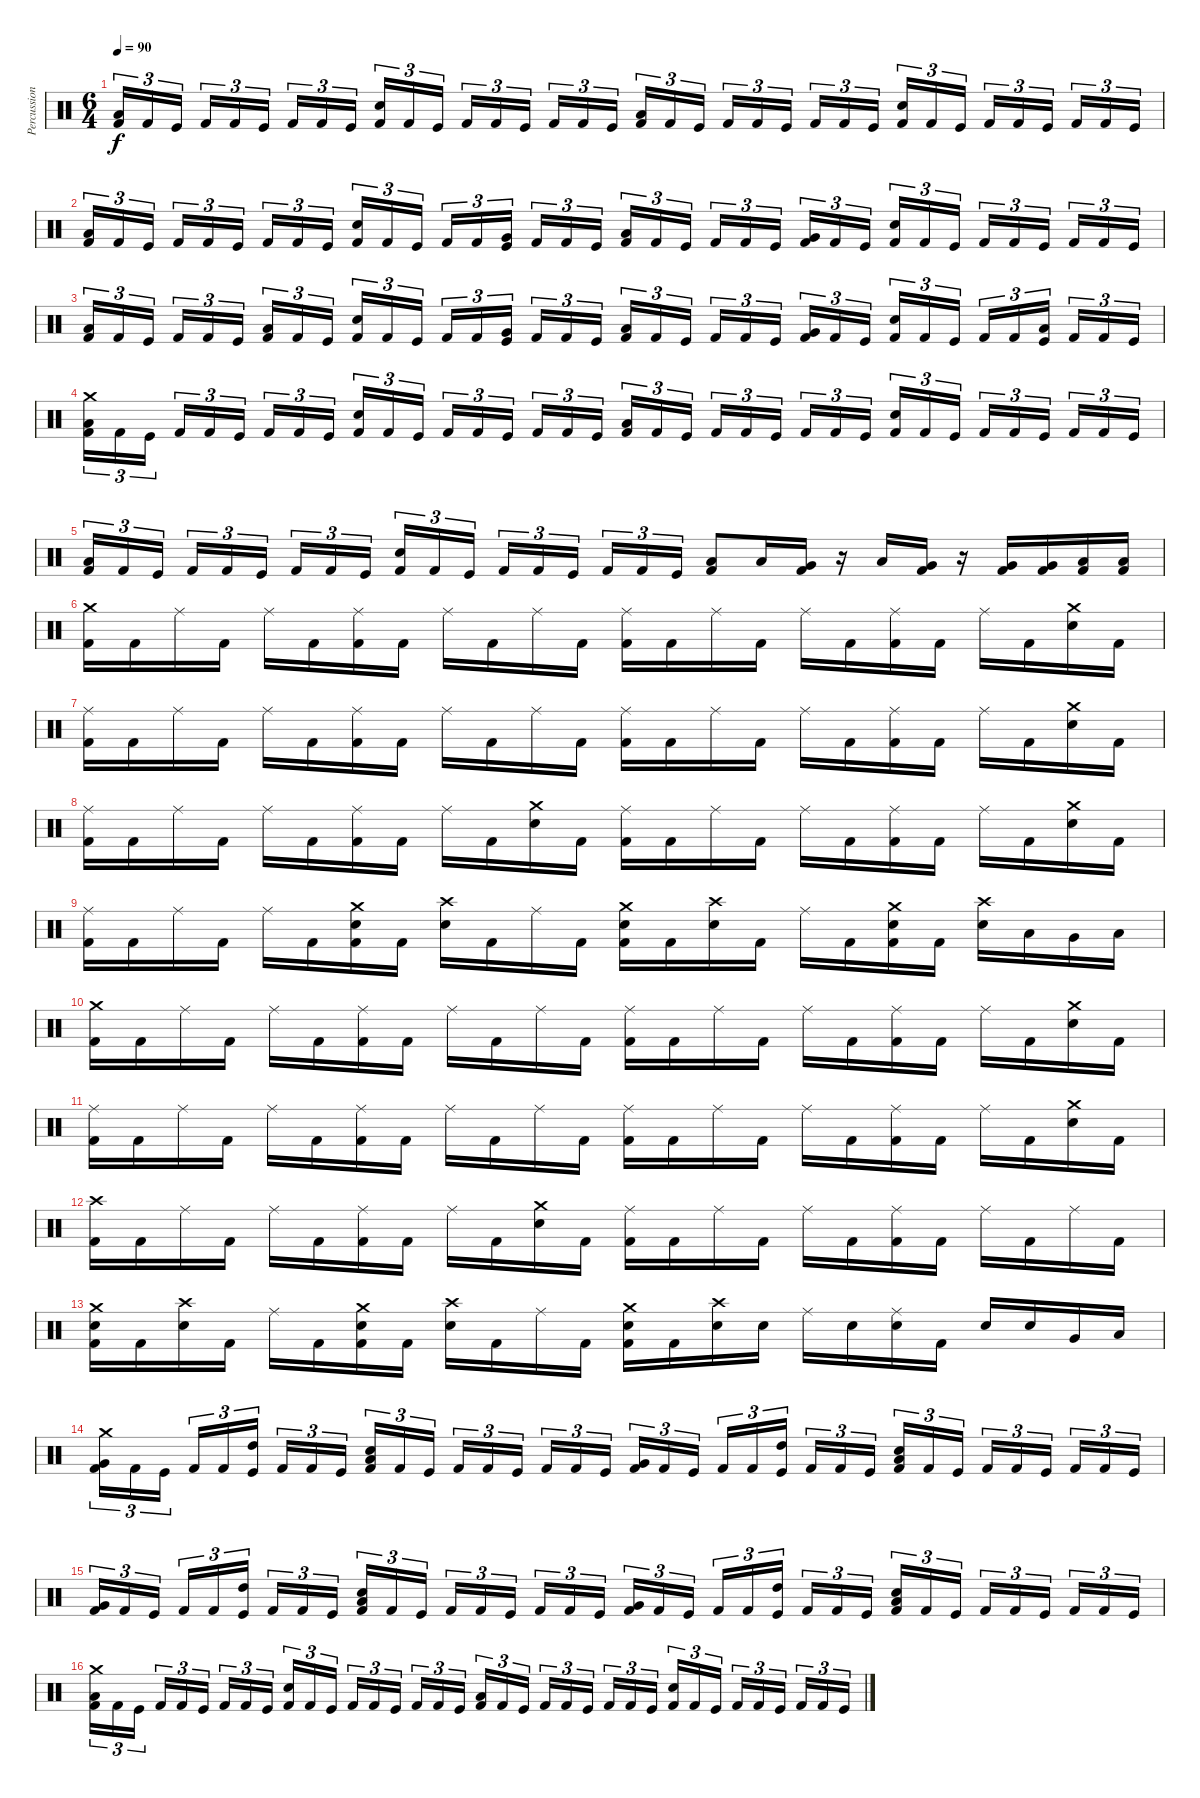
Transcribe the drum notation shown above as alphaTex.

\track ("Percussion" "Percussion") {instrument percussion}
\staff {score}
\articulation defaults
\ts (6 4)
\tempo 90
\clef neutral
\ks c
("Low Floor Tom (hit)" "Kick (hit) 2").16{tu (3 2) dy f} "Kick (hit) 2".16{tu (3 2)} "Kick (hit)".16{tu (3 2)} "Kick (hit) 2".16{tu (3 2)} "Kick (hit) 2".16{tu (3 2)} "Kick (hit)".16{tu (3 2)} "Kick (hit) 2".16{tu (3 2)} "Kick (hit) 2".16{tu (3 2)} "Kick (hit)".16{tu (3 2)} ("Electric Snare (hit)" "Kick (hit) 2").16{tu (3 2)} "Kick (hit) 2".16{tu (3 2)} "Kick (hit)".16{tu (3 2)} "Kick (hit) 2".16{tu (3 2)} "Kick (hit) 2".16{tu (3 2)} "Kick (hit)".16{tu (3 2)} "Kick (hit) 2".16{tu (3 2)} "Kick (hit) 2".16{tu (3 2)} "Kick (hit)".16{tu (3 2)} ("Low Floor Tom (hit)" "Kick (hit) 2").16{tu (3 2)} "Kick (hit) 2".16{tu (3 2)} "Kick (hit)".16{tu (3 2)} "Kick (hit) 2".16{tu (3 2)} "Kick (hit) 2".16{tu (3 2)} "Kick (hit)".16{tu (3 2)} "Kick (hit) 2".16{tu (3 2)} "Kick (hit) 2".16{tu (3 2)} "Kick (hit)".16{tu (3 2)} ("Electric Snare (hit)" "Kick (hit) 2").16{tu (3 2)} "Kick (hit) 2".16{tu (3 2)} "Kick (hit)".16{tu (3 2)} "Kick (hit) 2".16{tu (3 2)} "Kick (hit) 2".16{tu (3 2)} "Kick (hit)".16{tu (3 2)} "Kick (hit) 2".16{tu (3 2)} "Kick (hit) 2".16{tu (3 2)} "Kick (hit)".16{tu (3 2)} |
("Low Floor Tom (hit)" "Kick (hit) 2").16{tu (3 2)} "Kick (hit) 2".16{tu (3 2)} "Kick (hit)".16{tu (3 2)} "Kick (hit) 2".16{tu (3 2)} "Kick (hit) 2".16{tu (3 2)} "Kick (hit)".16{tu (3 2)} "Kick (hit) 2".16{tu (3 2)} "Kick (hit) 2".16{tu (3 2)} "Kick (hit)".16{tu (3 2)} ("Electric Snare (hit)" "Kick (hit) 2").16{tu (3 2)} "Kick (hit) 2".16{tu (3 2)} "Kick (hit)".16{tu (3 2)} "Kick (hit) 2".16{tu (3 2)} "Kick (hit) 2".16{tu (3 2)} ("Very Low Tom (hit)" "Kick (hit)").16{tu (3 2)} "Kick (hit) 2".16{tu (3 2)} "Kick (hit) 2".16{tu (3 2)} "Kick (hit)".16{tu (3 2)} ("Low Floor Tom (hit)" "Kick (hit) 2").16{tu (3 2)} "Kick (hit) 2".16{tu (3 2)} "Kick (hit)".16{tu (3 2)} "Kick (hit) 2".16{tu (3 2)} "Kick (hit) 2".16{tu (3 2)} "Kick (hit)".16{tu (3 2)} ("Very Low Tom (hit)" "Kick (hit) 2").16{tu (3 2)} "Kick (hit) 2".16{tu (3 2)} "Kick (hit)".16{tu (3 2)} ("Electric Snare (hit)" "Kick (hit) 2").16{tu (3 2)} "Kick (hit) 2".16{tu (3 2)} "Kick (hit)".16{tu (3 2)} "Kick (hit) 2".16{tu (3 2)} "Kick (hit) 2".16{tu (3 2)} "Kick (hit)".16{tu (3 2)} "Kick (hit) 2".16{tu (3 2)} "Kick (hit) 2".16{tu (3 2)} "Kick (hit)".16{tu (3 2)} |
("Low Floor Tom (hit)" "Kick (hit) 2").16{tu (3 2)} "Kick (hit) 2".16{tu (3 2)} "Kick (hit)".16{tu (3 2)} "Kick (hit) 2".16{tu (3 2)} "Kick (hit) 2".16{tu (3 2)} "Kick (hit)".16{tu (3 2)} ("Low Tom (hit)" "Kick (hit) 2").16{tu (3 2)} "Kick (hit) 2".16{tu (3 2)} "Kick (hit)".16{tu (3 2)} ("Electric Snare (hit)" "Kick (hit) 2").16{tu (3 2)} "Kick (hit) 2".16{tu (3 2)} "Kick (hit)".16{tu (3 2)} "Kick (hit) 2".16{tu (3 2)} "Kick (hit) 2".16{tu (3 2)} ("Very Low Tom (hit)" "Kick (hit)").16{tu (3 2)} "Kick (hit) 2".16{tu (3 2)} "Kick (hit) 2".16{tu (3 2)} "Kick (hit)".16{tu (3 2)} ("Low Floor Tom (hit)" "Kick (hit) 2").16{tu (3 2)} "Kick (hit) 2".16{tu (3 2)} "Kick (hit)".16{tu (3 2)} "Kick (hit) 2".16{tu (3 2)} "Kick (hit) 2".16{tu (3 2)} "Kick (hit)".16{tu (3 2)} ("Very Low Tom (hit)" "Kick (hit) 2").16{tu (3 2)} "Kick (hit) 2".16{tu (3 2)} "Kick (hit)".16{tu (3 2)} ("Electric Snare (hit)" "Kick (hit) 2").16{tu (3 2)} "Kick (hit) 2".16{tu (3 2)} "Kick (hit)".16{tu (3 2)} "Kick (hit) 2".16{tu (3 2)} "Kick (hit) 2".16{tu (3 2)} ("Low Tom (hit)" "Kick (hit)").16{tu (3 2)} "Kick (hit) 2".16{tu (3 2)} "Kick (hit) 2".16{tu (3 2)} "Kick (hit)".16{tu (3 2)} |
("Crash medium (hit)" "Low Floor Tom (hit)" "Kick (hit) 2").16{tu (3 2)} "Kick (hit) 2".16{tu (3 2)} "Kick (hit)".16{tu (3 2)} "Kick (hit) 2".16{tu (3 2)} "Kick (hit) 2".16{tu (3 2)} "Kick (hit)".16{tu (3 2)} "Kick (hit) 2".16{tu (3 2)} "Kick (hit) 2".16{tu (3 2)} "Kick (hit)".16{tu (3 2)} ("Electric Snare (hit)" "Kick (hit) 2").16{tu (3 2)} "Kick (hit) 2".16{tu (3 2)} "Kick (hit)".16{tu (3 2)} "Kick (hit) 2".16{tu (3 2)} "Kick (hit) 2".16{tu (3 2)} "Kick (hit)".16{tu (3 2)} "Kick (hit) 2".16{tu (3 2)} "Kick (hit) 2".16{tu (3 2)} "Kick (hit)".16{tu (3 2)} ("Low Floor Tom (hit)" "Kick (hit) 2").16{tu (3 2)} "Kick (hit) 2".16{tu (3 2)} "Kick (hit)".16{tu (3 2)} "Kick (hit) 2".16{tu (3 2)} "Kick (hit) 2".16{tu (3 2)} "Kick (hit)".16{tu (3 2)} "Kick (hit) 2".16{tu (3 2)} "Kick (hit) 2".16{tu (3 2)} "Kick (hit)".16{tu (3 2)} ("Electric Snare (hit)" "Kick (hit) 2").16{tu (3 2)} "Kick (hit) 2".16{tu (3 2)} "Kick (hit)".16{tu (3 2)} "Kick (hit) 2".16{tu (3 2)} "Kick (hit) 2".16{tu (3 2)} "Kick (hit)".16{tu (3 2)} "Kick (hit) 2".16{tu (3 2)} "Kick (hit) 2".16{tu (3 2)} "Kick (hit)".16{tu (3 2)} |
("Low Floor Tom (hit)" "Kick (hit) 2").16{tu (3 2)} "Kick (hit) 2".16{tu (3 2)} "Kick (hit)".16{tu (3 2)} "Kick (hit) 2".16{tu (3 2)} "Kick (hit) 2".16{tu (3 2)} "Kick (hit)".16{tu (3 2)} "Kick (hit) 2".16{tu (3 2)} "Kick (hit) 2".16{tu (3 2)} "Kick (hit)".16{tu (3 2)} ("Electric Snare (hit)" "Kick (hit) 2").16{tu (3 2)} "Kick (hit) 2".16{tu (3 2)} "Kick (hit)".16{tu (3 2)} "Kick (hit) 2".16{tu (3 2)} "Kick (hit) 2".16{tu (3 2)} "Kick (hit)".16{tu (3 2)} "Kick (hit) 2".16{tu (3 2)} "Kick (hit) 2".16{tu (3 2)} "Kick (hit)".16{tu (3 2)} ("Low Floor Tom (hit)" "Kick (hit) 2").8 "Low Tom (hit)".16 ("Very Low Tom (hit)" "Kick (hit) 2").16 r.16 "Low Floor Tom (hit)".16 ("Very Low Tom (hit)" "Kick (hit) 2").16 r.16 ("Very Low Tom (hit)" "Kick (hit) 2").16 ("Very Low Tom (hit)" "Kick (hit) 2").16 ("Low Floor Tom (hit)" "Kick (hit) 2").16 ("Low Floor Tom (hit)" "Kick (hit) 2").16 |
("Crash medium (hit)" "Kick (hit) 2").16 "Kick (hit) 2".16 "Ride (middle)".16 "Kick (hit) 2".16 "Ride (middle)".16 "Kick (hit) 2".16 ("Ride (middle)" "Kick (hit) 2").16 "Kick (hit) 2".16 "Ride (middle)".16 "Kick (hit) 2".16 "Ride (middle)".16 "Kick (hit) 2".16 ("Ride (middle)" "Kick (hit) 2").16 "Kick (hit) 2".16 "Ride (middle)".16 "Kick (hit) 2".16 "Ride (middle)".16 "Kick (hit) 2".16 ("Ride (middle)" "Kick (hit) 2").16 "Kick (hit) 2".16 "Ride (middle)".16 "Kick (hit) 2".16 ("Crash medium (hit)" "Electric Snare (hit)").16 "Kick (hit) 2".16 |
("Ride (middle)" "Kick (hit) 2").16 "Kick (hit) 2".16 "Ride (middle)".16 "Kick (hit) 2".16 "Ride (middle)".16 "Kick (hit) 2".16 ("Ride (middle)" "Kick (hit) 2").16 "Kick (hit) 2".16 "Ride (middle)".16 "Kick (hit) 2".16 "Ride (middle)".16 "Kick (hit) 2".16 ("Ride (middle)" "Kick (hit) 2").16 "Kick (hit) 2".16 "Ride (middle)".16 "Kick (hit) 2".16 "Ride (middle)".16 "Kick (hit) 2".16 ("Ride (middle)" "Kick (hit) 2").16 "Kick (hit) 2".16 "Ride (middle)".16 "Kick (hit) 2".16 ("Crash medium (hit)" "Electric Snare (hit)").16 "Kick (hit) 2".16 |
("Ride (middle)" "Kick (hit) 2").16 "Kick (hit) 2".16 "Ride (middle)".16 "Kick (hit) 2".16 "Ride (middle)".16 "Kick (hit) 2".16 ("Ride (middle)" "Kick (hit) 2").16 "Kick (hit) 2".16 "Ride (middle)".16 "Kick (hit) 2".16 ("Crash medium (hit)" "Electric Snare (hit)").16 "Kick (hit) 2".16 ("Ride (middle)" "Kick (hit) 2").16 "Kick (hit) 2".16 "Ride (middle)".16 "Kick (hit) 2".16 "Ride (middle)".16 "Kick (hit) 2".16 ("Ride (middle)" "Kick (hit) 2").16 "Kick (hit) 2".16 "Ride (middle)".16 "Kick (hit) 2".16 ("Crash medium (hit)" "Electric Snare (hit)").16 "Kick (hit) 2".16 |
("Ride (middle)" "Kick (hit) 2").16 "Kick (hit) 2".16 "Ride (middle)".16 "Kick (hit) 2".16 "Ride (middle)".16 "Kick (hit) 2".16 ("Crash medium (hit)" "Electric Snare (hit)" "Kick (hit) 2").16 "Kick (hit) 2".16 ("Crash high (hit)" "Electric Snare (hit)").16 "Kick (hit) 2".16 "Ride (middle)".16 "Kick (hit) 2".16 ("Crash medium (hit)" "Electric Snare (hit)" "Kick (hit) 2").16 "Kick (hit) 2".16 ("Crash high (hit)" "Electric Snare (hit)").16 "Kick (hit) 2".16 "Ride (middle)".16 "Kick (hit) 2".16 ("Crash medium (hit)" "Electric Snare (hit)" "Kick (hit) 2").16 "Kick (hit) 2".16 ("Crash high (hit)" "Electric Snare (hit)").16 "Low Tom (hit)".16 "Very Low Tom (hit)".16 "Low Floor Tom (hit)".16 |
("Crash medium (hit)" "Kick (hit) 2").16 "Kick (hit) 2".16 "Ride (middle)".16 "Kick (hit) 2".16 "Ride (middle)".16 "Kick (hit) 2".16 ("Ride (middle)" "Kick (hit) 2").16 "Kick (hit) 2".16 "Ride (middle)".16 "Kick (hit) 2".16 "Ride (middle)".16 "Kick (hit) 2".16 ("Ride (middle)" "Kick (hit) 2").16 "Kick (hit) 2".16 "Ride (middle)".16 "Kick (hit) 2".16 "Ride (middle)".16 "Kick (hit) 2".16 ("Ride (middle)" "Kick (hit) 2").16 "Kick (hit) 2".16 "Ride (middle)".16 "Kick (hit) 2".16 ("Crash medium (hit)" "Electric Snare (hit)").16 "Kick (hit) 2".16 |
("Ride (middle)" "Kick (hit) 2").16 "Kick (hit) 2".16 "Ride (middle)".16 "Kick (hit) 2".16 "Ride (middle)".16 "Kick (hit) 2".16 ("Ride (middle)" "Kick (hit) 2").16 "Kick (hit) 2".16 "Ride (middle)".16 "Kick (hit) 2".16 "Ride (middle)".16 "Kick (hit) 2".16 ("Ride (middle)" "Kick (hit) 2").16 "Kick (hit) 2".16 "Ride (middle)".16 "Kick (hit) 2".16 "Ride (middle)".16 "Kick (hit) 2".16 ("Ride (middle)" "Kick (hit) 2").16 "Kick (hit) 2".16 "Ride (middle)".16 "Kick (hit) 2".16 ("Crash medium (hit)" "Electric Snare (hit)").16 "Kick (hit) 2".16 |
("Crash high (hit)" "Kick (hit) 2").16 "Kick (hit) 2".16 "Ride (middle)".16 "Kick (hit) 2".16 "Ride (middle)".16 "Kick (hit) 2".16 ("Ride (middle)" "Kick (hit) 2").16 "Kick (hit) 2".16 "Ride (middle)".16 "Kick (hit) 2".16 ("Crash medium (hit)" "Electric Snare (hit)").16 "Kick (hit) 2".16 ("Ride (middle)" "Kick (hit) 2").16 "Kick (hit) 2".16 "Ride (middle)".16 "Kick (hit) 2".16 "Ride (middle)".16 "Kick (hit) 2".16 ("Ride (middle)" "Kick (hit) 2").16 "Kick (hit) 2".16 "Ride (middle)".16 "Kick (hit) 2".16 "Ride (middle)".16 "Kick (hit) 2".16 |
("Crash medium (hit)" "Electric Snare (hit)" "Kick (hit) 2").16 "Kick (hit) 2".16 ("Crash high (hit)" "Electric Snare (hit)").16 "Kick (hit) 2".16 "Ride (middle)".16 "Kick (hit) 2".16 ("Crash medium (hit)" "Electric Snare (hit)" "Kick (hit) 2").16 "Kick (hit) 2".16 ("Crash high (hit)" "Electric Snare (hit)").16 "Kick (hit) 2".16 "Ride (middle)".16 "Kick (hit) 2".16 ("Crash medium (hit)" "Electric Snare (hit)" "Kick (hit) 2").16 "Kick (hit) 2".16 ("Crash high (hit)" "Electric Snare (hit)").16 "Electric Snare (hit)".16 "Ride (middle)".16 "Electric Snare (hit)".16 ("Ride (middle)" "Electric Snare (hit)").16 "Kick (hit) 2".16 "Electric Snare (hit)".16 "Electric Snare (hit)".16 "Very Low Tom (hit)".16 "Low Floor Tom (hit)".16 |
("Crash medium (hit)" "Very Low Tom (hit)" "Kick (hit) 2").16{tu (3 2)} "Kick (hit) 2".16{tu (3 2)} "Kick (hit)".16{tu (3 2)} "Kick (hit) 2".16{tu (3 2)} "Kick (hit) 2".16{tu (3 2)} ("High Tom (hit)" "Kick (hit)").16{tu (3 2)} "Kick (hit) 2".16{tu (3 2)} "Kick (hit) 2".16{tu (3 2)} "Kick (hit)".16{tu (3 2)} ("Low Tom (hit)" "Electric Snare (hit)" "Kick (hit) 2").16{tu (3 2)} "Kick (hit) 2".16{tu (3 2)} "Kick (hit)".16{tu (3 2)} "Kick (hit) 2".16{tu (3 2)} "Kick (hit) 2".16{tu (3 2)} "Kick (hit)".16{tu (3 2)} "Kick (hit) 2".16{tu (3 2)} "Kick (hit) 2".16{tu (3 2)} "Kick (hit)".16{tu (3 2)} ("Very Low Tom (hit)" "Kick (hit) 2").16{tu (3 2)} "Kick (hit) 2".16{tu (3 2)} "Kick (hit)".16{tu (3 2)} "Kick (hit) 2".16{tu (3 2)} "Kick (hit) 2".16{tu (3 2)} ("High Tom (hit)" "Kick (hit)").16{tu (3 2)} "Kick (hit) 2".16{tu (3 2)} "Kick (hit) 2".16{tu (3 2)} "Kick (hit)".16{tu (3 2)} ("Low Tom (hit)" "Electric Snare (hit)" "Kick (hit) 2").16{tu (3 2)} "Kick (hit) 2".16{tu (3 2)} "Kick (hit)".16{tu (3 2)} "Kick (hit) 2".16{tu (3 2)} "Kick (hit) 2".16{tu (3 2)} "Kick (hit)".16{tu (3 2)} "Kick (hit) 2".16{tu (3 2)} "Kick (hit) 2".16{tu (3 2)} "Kick (hit)".16{tu (3 2)} |
("Very Low Tom (hit)" "Kick (hit) 2").16{tu (3 2)} "Kick (hit) 2".16{tu (3 2)} "Kick (hit)".16{tu (3 2)} "Kick (hit) 2".16{tu (3 2)} "Kick (hit) 2".16{tu (3 2)} ("High Tom (hit)" "Kick (hit)").16{tu (3 2)} "Kick (hit) 2".16{tu (3 2)} "Kick (hit) 2".16{tu (3 2)} "Kick (hit)".16{tu (3 2)} ("Low Tom (hit)" "Electric Snare (hit)" "Kick (hit) 2").16{tu (3 2)} "Kick (hit) 2".16{tu (3 2)} "Kick (hit)".16{tu (3 2)} "Kick (hit) 2".16{tu (3 2)} "Kick (hit) 2".16{tu (3 2)} "Kick (hit)".16{tu (3 2)} "Kick (hit) 2".16{tu (3 2)} "Kick (hit) 2".16{tu (3 2)} "Kick (hit)".16{tu (3 2)} ("Very Low Tom (hit)" "Kick (hit) 2").16{tu (3 2)} "Kick (hit) 2".16{tu (3 2)} "Kick (hit)".16{tu (3 2)} "Kick (hit) 2".16{tu (3 2)} "Kick (hit) 2".16{tu (3 2)} ("High Tom (hit)" "Kick (hit)").16{tu (3 2)} "Kick (hit) 2".16{tu (3 2)} "Kick (hit) 2".16{tu (3 2)} "Kick (hit)".16{tu (3 2)} ("Low Tom (hit)" "Electric Snare (hit)" "Kick (hit) 2").16{tu (3 2)} "Kick (hit) 2".16{tu (3 2)} "Kick (hit)".16{tu (3 2)} "Kick (hit) 2".16{tu (3 2)} "Kick (hit) 2".16{tu (3 2)} "Kick (hit)".16{tu (3 2)} "Kick (hit) 2".16{tu (3 2)} "Kick (hit) 2".16{tu (3 2)} "Kick (hit)".16{tu (3 2)} |
("Crash medium (hit)" "Low Floor Tom (hit)" "Kick (hit) 2").16{tu (3 2)} "Kick (hit) 2".16{tu (3 2)} "Kick (hit)".16{tu (3 2)} "Kick (hit) 2".16{tu (3 2)} "Kick (hit) 2".16{tu (3 2)} "Kick (hit)".16{tu (3 2)} "Kick (hit) 2".16{tu (3 2)} "Kick (hit) 2".16{tu (3 2)} "Kick (hit)".16{tu (3 2)} ("Electric Snare (hit)" "Kick (hit) 2").16{tu (3 2)} "Kick (hit) 2".16{tu (3 2)} "Kick (hit)".16{tu (3 2)} "Kick (hit) 2".16{tu (3 2)} "Kick (hit) 2".16{tu (3 2)} "Kick (hit)".16{tu (3 2)} "Kick (hit) 2".16{tu (3 2)} "Kick (hit) 2".16{tu (3 2)} "Kick (hit)".16{tu (3 2)} ("Low Floor Tom (hit)" "Kick (hit) 2").16{tu (3 2)} "Kick (hit) 2".16{tu (3 2)} "Kick (hit)".16{tu (3 2)} "Kick (hit) 2".16{tu (3 2)} "Kick (hit) 2".16{tu (3 2)} "Kick (hit)".16{tu (3 2)} "Kick (hit) 2".16{tu (3 2)} "Kick (hit) 2".16{tu (3 2)} "Kick (hit)".16{tu (3 2)} ("Electric Snare (hit)" "Kick (hit) 2").16{tu (3 2)} "Kick (hit) 2".16{tu (3 2)} "Kick (hit)".16{tu (3 2)} "Kick (hit) 2".16{tu (3 2)} "Kick (hit) 2".16{tu (3 2)} "Kick (hit)".16{tu (3 2)} "Kick (hit) 2".16{tu (3 2)} "Kick (hit) 2".16{tu (3 2)} "Kick (hit)".16{tu (3 2)}
